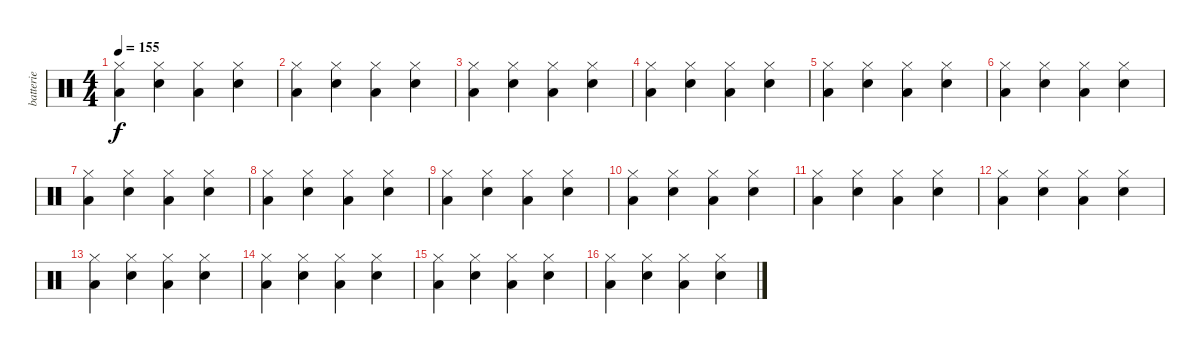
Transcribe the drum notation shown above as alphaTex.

\track ("batterie" "batterie") {instrument percussion}
\staff {score}
\articulation defaults
\ts (4 4)
\tempo 155
\clef neutral
\ks c
("Hi-Hat (closed)" "Low Floor Tom (hit)").4{dy f} ("Hi-Hat (closed)" "Electric Snare (hit)").4 ("Hi-Hat (closed)" "Low Floor Tom (hit)").4 ("Hi-Hat (closed)" "Electric Snare (hit)").4 |
("Hi-Hat (closed)" "Low Floor Tom (hit)").4 ("Hi-Hat (closed)" "Electric Snare (hit)").4 ("Hi-Hat (closed)" "Low Floor Tom (hit)").4 ("Hi-Hat (closed)" "Electric Snare (hit)").4 |
("Hi-Hat (closed)" "Low Floor Tom (hit)").4 ("Hi-Hat (closed)" "Electric Snare (hit)").4 ("Hi-Hat (closed)" "Low Floor Tom (hit)").4 ("Hi-Hat (closed)" "Electric Snare (hit)").4 |
("Hi-Hat (closed)" "Low Floor Tom (hit)").4 ("Hi-Hat (closed)" "Electric Snare (hit)").4 ("Hi-Hat (closed)" "Low Floor Tom (hit)").4 ("Hi-Hat (closed)" "Electric Snare (hit)").4 |
("Hi-Hat (closed)" "Low Floor Tom (hit)").4 ("Hi-Hat (closed)" "Electric Snare (hit)").4 ("Hi-Hat (closed)" "Low Floor Tom (hit)").4 ("Hi-Hat (closed)" "Electric Snare (hit)").4 |
("Hi-Hat (closed)" "Low Floor Tom (hit)").4 ("Hi-Hat (closed)" "Electric Snare (hit)").4 ("Hi-Hat (closed)" "Low Floor Tom (hit)").4 ("Hi-Hat (closed)" "Electric Snare (hit)").4 |
("Hi-Hat (closed)" "Low Floor Tom (hit)").4 ("Hi-Hat (closed)" "Electric Snare (hit)").4 ("Hi-Hat (closed)" "Low Floor Tom (hit)").4 ("Hi-Hat (closed)" "Electric Snare (hit)").4 |
("Hi-Hat (closed)" "Low Floor Tom (hit)").4 ("Hi-Hat (closed)" "Electric Snare (hit)").4 ("Hi-Hat (closed)" "Low Floor Tom (hit)").4 ("Hi-Hat (closed)" "Electric Snare (hit)").4 |
("Hi-Hat (closed)" "Low Floor Tom (hit)").4 ("Hi-Hat (closed)" "Electric Snare (hit)").4 ("Hi-Hat (closed)" "Low Floor Tom (hit)").4 ("Hi-Hat (closed)" "Electric Snare (hit)").4 |
("Hi-Hat (closed)" "Low Floor Tom (hit)").4 ("Hi-Hat (closed)" "Electric Snare (hit)").4 ("Hi-Hat (closed)" "Low Floor Tom (hit)").4 ("Hi-Hat (closed)" "Electric Snare (hit)").4 |
("Hi-Hat (closed)" "Low Floor Tom (hit)").4 ("Hi-Hat (closed)" "Electric Snare (hit)").4 ("Hi-Hat (closed)" "Low Floor Tom (hit)").4 ("Hi-Hat (closed)" "Electric Snare (hit)").4 |
("Hi-Hat (closed)" "Low Floor Tom (hit)").4 ("Hi-Hat (closed)" "Electric Snare (hit)").4 ("Hi-Hat (closed)" "Low Floor Tom (hit)").4 ("Hi-Hat (closed)" "Electric Snare (hit)").4 |
("Hi-Hat (closed)" "Low Floor Tom (hit)").4 ("Hi-Hat (closed)" "Electric Snare (hit)").4 ("Hi-Hat (closed)" "Low Floor Tom (hit)").4 ("Hi-Hat (closed)" "Electric Snare (hit)").4 |
("Hi-Hat (closed)" "Low Floor Tom (hit)").4 ("Hi-Hat (closed)" "Electric Snare (hit)").4 ("Hi-Hat (closed)" "Low Floor Tom (hit)").4 ("Hi-Hat (closed)" "Electric Snare (hit)").4 |
("Hi-Hat (closed)" "Low Floor Tom (hit)").4 ("Hi-Hat (closed)" "Electric Snare (hit)").4 ("Hi-Hat (closed)" "Low Floor Tom (hit)").4 ("Hi-Hat (closed)" "Electric Snare (hit)").4 |
("Hi-Hat (closed)" "Low Floor Tom (hit)").4 ("Hi-Hat (closed)" "Electric Snare (hit)").4 ("Hi-Hat (closed)" "Low Floor Tom (hit)").4 ("Hi-Hat (closed)" "Electric Snare (hit)").4
